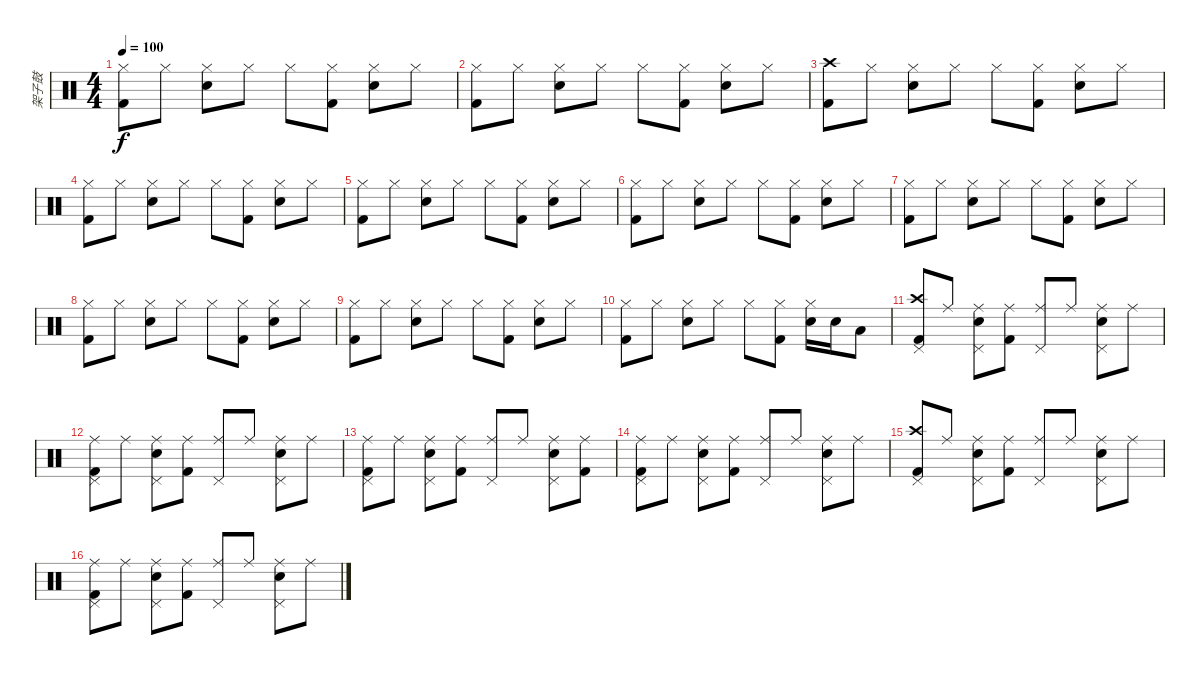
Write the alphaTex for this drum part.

\track ("架子鼓" "架子鼓") {instrument percussion}
\staff {score}
\articulation defaults
\ts (4 4)
\tempo 100
\clef neutral
\ks c
("Hi-Hat (closed)" "Kick (hit) 2").8{dy f} "Hi-Hat (closed)".8 ("Hi-Hat (closed)" "Snare (hit) 2").8 "Hi-Hat (closed)".8 "Hi-Hat (closed)".8 ("Hi-Hat (closed)" "Kick (hit) 2").8 ("Hi-Hat (closed)" "Snare (hit) 2").8 "Hi-Hat (closed)".8 |
("Hi-Hat (closed)" "Kick (hit) 2").8 "Hi-Hat (closed)".8 ("Hi-Hat (closed)" "Snare (hit) 2").8 "Hi-Hat (closed)".8 "Hi-Hat (closed)".8 ("Hi-Hat (closed)" "Kick (hit) 2").8 ("Hi-Hat (closed)" "Snare (hit) 2").8 "Hi-Hat (closed)".8 |
("Crash high (hit)" "Kick (hit) 2").8 "Hi-Hat (closed)".8 ("Hi-Hat (closed)" "Snare (hit) 2").8 "Hi-Hat (closed)".8 "Hi-Hat (closed)".8 ("Hi-Hat (closed)" "Kick (hit) 2").8 ("Hi-Hat (closed)" "Snare (hit) 2").8 "Hi-Hat (closed)".8 |
("Hi-Hat (closed)" "Kick (hit) 2").8 "Hi-Hat (closed)".8 ("Hi-Hat (closed)" "Snare (hit) 2").8 "Hi-Hat (closed)".8 "Hi-Hat (closed)".8 ("Hi-Hat (closed)" "Kick (hit) 2").8 ("Hi-Hat (closed)" "Snare (hit) 2").8 "Hi-Hat (closed)".8 |
("Hi-Hat (closed)" "Kick (hit) 2").8 "Hi-Hat (closed)".8 ("Hi-Hat (closed)" "Snare (hit) 2").8 "Hi-Hat (closed)".8 "Hi-Hat (closed)".8 ("Hi-Hat (closed)" "Kick (hit) 2").8 ("Hi-Hat (closed)" "Snare (hit) 2").8 "Hi-Hat (closed)".8 |
("Hi-Hat (closed)" "Kick (hit) 2").8 "Hi-Hat (closed)".8 ("Hi-Hat (closed)" "Snare (hit) 2").8 "Hi-Hat (closed)".8 "Hi-Hat (closed)".8 ("Hi-Hat (closed)" "Kick (hit) 2").8 ("Hi-Hat (closed)" "Snare (hit) 2").8 "Hi-Hat (closed)".8 |
("Hi-Hat (closed)" "Kick (hit) 2").8 "Hi-Hat (closed)".8 ("Hi-Hat (closed)" "Snare (hit) 2").8 "Hi-Hat (closed)".8 "Hi-Hat (closed)".8 ("Hi-Hat (closed)" "Kick (hit) 2").8 ("Hi-Hat (closed)" "Snare (hit) 2").8 "Hi-Hat (closed)".8 |
("Hi-Hat (closed)" "Kick (hit) 2").8 "Hi-Hat (closed)".8 ("Hi-Hat (closed)" "Snare (hit) 2").8 "Hi-Hat (closed)".8 "Hi-Hat (closed)".8 ("Hi-Hat (closed)" "Kick (hit) 2").8 ("Hi-Hat (closed)" "Snare (hit) 2").8 "Hi-Hat (closed)".8 |
("Hi-Hat (closed)" "Kick (hit) 2").8 "Hi-Hat (closed)".8 ("Hi-Hat (closed)" "Snare (hit) 2").8 "Hi-Hat (closed)".8 "Hi-Hat (closed)".8 ("Hi-Hat (closed)" "Kick (hit) 2").8 ("Hi-Hat (closed)" "Snare (hit) 2").8 "Hi-Hat (closed)".8 |
("Hi-Hat (closed)" "Kick (hit) 2").8 "Hi-Hat (closed)".8 ("Hi-Hat (closed)" "Snare (hit) 2").8 "Hi-Hat (closed)".8 "Hi-Hat (closed)".8 ("Hi-Hat (closed)" "Kick (hit) 2").8 ("Hi-Hat (closed)" "Snare (hit) 2").16 "Snare (hit) 2".16 "Low Tom (hit)".8 |
("Crash high (hit)" "Pedal Hi-Hat (hit)" "Kick (hit) 2").8 "Ride (middle)".8 ("Ride (middle)" "Pedal Hi-Hat (hit)" "Snare (hit) 2").8 ("Ride (middle)" "Kick (hit) 2").8 ("Ride (middle)" "Pedal Hi-Hat (hit)").8 "Ride (middle)".8 ("Ride (middle)" "Pedal Hi-Hat (hit)" "Snare (hit) 2").8 "Ride (middle)".8 |
("Ride (middle)" "Pedal Hi-Hat (hit)" "Kick (hit) 2").8 "Ride (middle)".8 ("Ride (middle)" "Pedal Hi-Hat (hit)" "Snare (hit) 2").8 ("Ride (middle)" "Kick (hit) 2").8 ("Ride (middle)" "Pedal Hi-Hat (hit)").8 "Ride (middle)".8 ("Ride (middle)" "Pedal Hi-Hat (hit)" "Snare (hit) 2").8 "Ride (middle)".8 |
("Ride (middle)" "Pedal Hi-Hat (hit)" "Kick (hit) 2").8 "Ride (middle)".8 ("Ride (middle)" "Pedal Hi-Hat (hit)" "Snare (hit) 2").8 ("Ride (middle)" "Kick (hit) 2").8 ("Ride (middle)" "Pedal Hi-Hat (hit)").8 "Ride (middle)".8 ("Ride (middle)" "Pedal Hi-Hat (hit)" "Snare (hit) 2").8 ("Ride (middle)" "Kick (hit) 2").8 |
("Ride (middle)" "Pedal Hi-Hat (hit)" "Kick (hit) 2").8 "Ride (middle)".8 ("Ride (middle)" "Pedal Hi-Hat (hit)" "Snare (hit) 2").8 ("Ride (middle)" "Kick (hit) 2").8 ("Ride (middle)" "Pedal Hi-Hat (hit)").8 "Ride (middle)".8 ("Ride (middle)" "Pedal Hi-Hat (hit)" "Snare (hit) 2").8 "Ride (middle)".8 |
("Crash high (hit)" "Pedal Hi-Hat (hit)" "Kick (hit) 2").8 "Ride (middle)".8 ("Ride (middle)" "Pedal Hi-Hat (hit)" "Snare (hit) 2").8 ("Ride (middle)" "Kick (hit) 2").8 ("Ride (middle)" "Pedal Hi-Hat (hit)").8 "Ride (middle)".8 ("Ride (middle)" "Pedal Hi-Hat (hit)" "Snare (hit) 2").8 "Ride (middle)".8 |
("Ride (middle)" "Pedal Hi-Hat (hit)" "Kick (hit) 2").8 "Ride (middle)".8 ("Ride (middle)" "Pedal Hi-Hat (hit)" "Snare (hit) 2").8 ("Ride (middle)" "Kick (hit) 2").8 ("Ride (middle)" "Pedal Hi-Hat (hit)").8 "Ride (middle)".8 ("Ride (middle)" "Pedal Hi-Hat (hit)" "Snare (hit) 2").8 "Ride (middle)".8
